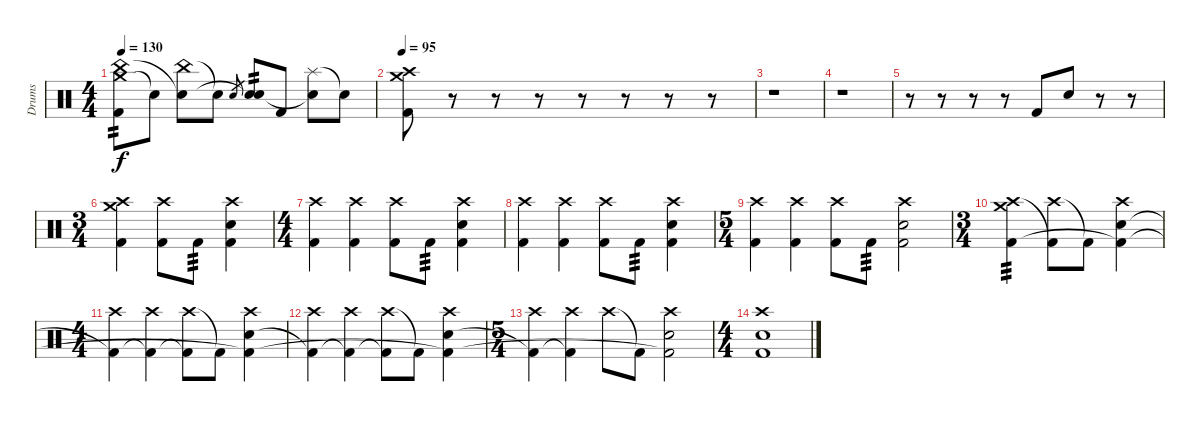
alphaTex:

\track ("Drums" "Drums") {instrument percussion}
\staff {score}
\articulation defaults
\ts (4 4)
\tempo 130
\clef neutral
\ks c
("Crash medium (hit)" "China (hit)" "Kick (hit) 2").8{tp 2 dy f} "Snare (hit)"{t}.8 ("China (hit)" "Snare (hit)"{t}).8 "Snare (hit)"{t}.8 "Electric Snare (hit)".8{gr} ("Electric Snare (hit)" "Snare (hit)"{t}).8{tp 2} "Kick (hit) 2".8 ("Splash (hit)" "Snare (hit)"{t}).8 "Snare (hit)"{t}.8 |
\tempo 95
("Crash high (hit)" "Crash medium (hit)" "Kick (hit) 2").8 r.8{volume 0} r.8 r.8 r.8 r.8 r.8 r.8 |
r.1 |
r.1 |
r.8 r.8 r.8 r.8 "Kick (hit) 2".8{volume 13} "Electric Snare (hit)".8 r.8 r.8 |
\ts (3 4)
("Crash medium (hit)" "Crash high (hit)" "Kick (hit) 2").4 ("Crash high (hit)" "Kick (hit) 2").8 "Kick (hit) 2".8{tp 3} ("Crash high (hit)" "Electric Snare (hit)" "Kick (hit) 2").4 |
\ts (4 4)
("Crash high (hit)" "Kick (hit) 2").4 ("Crash high (hit)" "Kick (hit) 2").4 ("Crash high (hit)" "Kick (hit) 2").8 "Kick (hit) 2".8{tp 3} ("Crash high (hit)" "Electric Snare (hit)" "Kick (hit) 2").4 |
("Crash high (hit)" "Kick (hit) 2").4 ("Crash high (hit)" "Kick (hit) 2").4 ("Crash high (hit)" "Kick (hit) 2").8 "Kick (hit) 2".8{tp 3} ("Crash high (hit)" "Electric Snare (hit)" "Kick (hit) 2").4 |
\ts (5 4)
("Crash high (hit)" "Kick (hit) 2").4 ("Crash high (hit)" "Kick (hit) 2").4 ("Crash high (hit)" "Kick (hit) 2").8 "Kick (hit) 2".8{tp 3} ("Crash high (hit)" "Electric Snare (hit)" "Kick (hit) 2").2 |
\ts (3 4)
("Crash medium (hit)" "Crash high (hit)" "Kick (hit) 2").4{tp 3} ("Crash high (hit)" "Kick (hit) 2"{t}).8 "Kick (hit) 2"{t}.8 ("Crash high (hit)" "Electric Snare (hit)" "Kick (hit) 2"{t}).4 |
\ts (4 4)
("Crash high (hit)" "Kick (hit) 2"{t}).4 ("Crash high (hit)" "Kick (hit) 2"{t}).4 ("Crash high (hit)" "Kick (hit) 2"{t}).8 "Kick (hit) 2"{t}.8 ("Crash high (hit)" "Electric Snare (hit)" "Kick (hit) 2"{t}).4 |
("Crash high (hit)" "Kick (hit) 2"{t}).4 ("Crash high (hit)" "Kick (hit) 2"{t}).4 ("Crash high (hit)" "Kick (hit) 2"{t}).8 "Kick (hit) 2"{t}.8 ("Crash high (hit)" "Electric Snare (hit)" "Kick (hit) 2"{t}).4 |
\ts (5 4)
("Crash high (hit)" "Kick (hit) 2"{t}).4 ("Crash high (hit)" "Kick (hit) 2"{t}).4 "Crash high (hit)".8 "Kick (hit) 2"{t}.8 ("Crash high (hit)" "Electric Snare (hit)" "Kick (hit) 2"{t}).2 |
\ts (4 4)
("Crash high (hit)" "Electric Snare (hit)" "Kick (hit) 2").1
